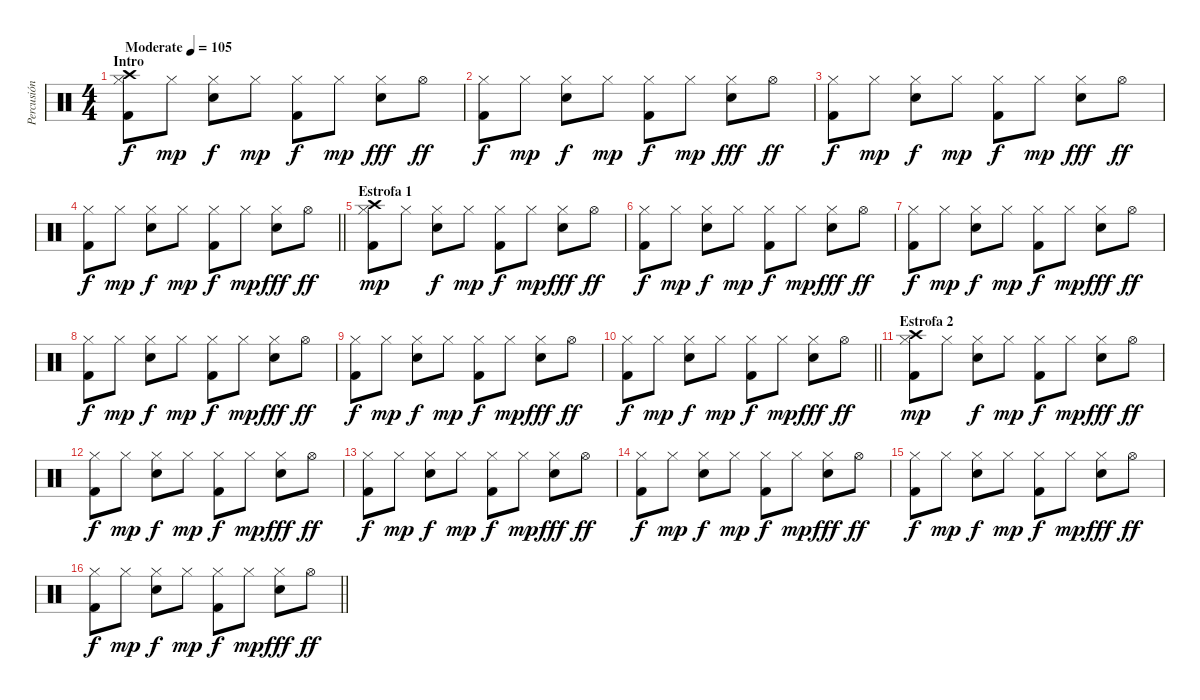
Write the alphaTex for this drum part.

\track ("Percusión" "Percusión") {instrument percussion}
\staff {score}
\articulation defaults
\ts (4 4)
\section ("" "Intro")
\tempo (105 "Moderate")
\clef neutral
\ks c
("Crash high (hit)" "Kick (hit) 2" "Hi-Hat (closed)").8{dy f} "Hi-Hat (closed)".8{dy mp} ("Snare (hit) 2" "Hi-Hat (closed)").8{dy f} "Hi-Hat (closed)".8{dy mp} ("Kick (hit) 2" "Hi-Hat (closed)").8{dy f} "Hi-Hat (closed)".8{dy mp} ("Snare (hit) 2" "Hi-Hat (closed)").8{dy fff} "Hi-Hat (open)".8{dy ff} |
("Kick (hit) 2" "Hi-Hat (closed)").8{dy f} "Hi-Hat (closed)".8{dy mp} ("Snare (hit) 2" "Hi-Hat (closed)").8{dy f} "Hi-Hat (closed)".8{dy mp} ("Kick (hit) 2" "Hi-Hat (closed)").8{dy f} "Hi-Hat (closed)".8{dy mp} ("Snare (hit) 2" "Hi-Hat (closed)").8{dy fff} "Hi-Hat (open)".8{dy ff} |
("Kick (hit) 2" "Hi-Hat (closed)").8{dy f} "Hi-Hat (closed)".8{dy mp} ("Snare (hit) 2" "Hi-Hat (closed)").8{dy f} "Hi-Hat (closed)".8{dy mp} ("Kick (hit) 2" "Hi-Hat (closed)").8{dy f} "Hi-Hat (closed)".8{dy mp} ("Snare (hit) 2" "Hi-Hat (closed)").8{dy fff} "Hi-Hat (open)".8{dy ff} |
\barLineRight lightlight
("Kick (hit) 2" "Hi-Hat (closed)").8{dy f} "Hi-Hat (closed)".8{dy mp} ("Snare (hit) 2" "Hi-Hat (closed)").8{dy f} "Hi-Hat (closed)".8{dy mp} ("Kick (hit) 2" "Hi-Hat (closed)").8{dy f} "Hi-Hat (closed)".8{dy mp} ("Snare (hit) 2" "Hi-Hat (closed)").8{dy fff} "Hi-Hat (open)".8{dy ff} |
\section ("" "Estrofa 1")
("Crash high (hit)" "Kick (hit) 2" "Hi-Hat (closed)").8{dy mp} "Hi-Hat (closed)".8 ("Snare (hit) 2" "Hi-Hat (closed)").8{dy f} "Hi-Hat (closed)".8{dy mp} ("Kick (hit) 2" "Hi-Hat (closed)").8{dy f} "Hi-Hat (closed)".8{dy mp} ("Snare (hit) 2" "Hi-Hat (closed)").8{dy fff} "Hi-Hat (open)".8{dy ff} |
("Kick (hit) 2" "Hi-Hat (closed)").8{dy f} "Hi-Hat (closed)".8{dy mp} ("Snare (hit) 2" "Hi-Hat (closed)").8{dy f} "Hi-Hat (closed)".8{dy mp} ("Kick (hit) 2" "Hi-Hat (closed)").8{dy f} "Hi-Hat (closed)".8{dy mp} ("Snare (hit) 2" "Hi-Hat (closed)").8{dy fff} "Hi-Hat (open)".8{dy ff} |
("Kick (hit) 2" "Hi-Hat (closed)").8{dy f} "Hi-Hat (closed)".8{dy mp} ("Snare (hit) 2" "Hi-Hat (closed)").8{dy f} "Hi-Hat (closed)".8{dy mp} ("Kick (hit) 2" "Hi-Hat (closed)").8{dy f} "Hi-Hat (closed)".8{dy mp} ("Snare (hit) 2" "Hi-Hat (closed)").8{dy fff} "Hi-Hat (open)".8{dy ff} |
("Kick (hit) 2" "Hi-Hat (closed)").8{dy f} "Hi-Hat (closed)".8{dy mp} ("Snare (hit) 2" "Hi-Hat (closed)").8{dy f} "Hi-Hat (closed)".8{dy mp} ("Kick (hit) 2" "Hi-Hat (closed)").8{dy f} "Hi-Hat (closed)".8{dy mp} ("Snare (hit) 2" "Hi-Hat (closed)").8{dy fff} "Hi-Hat (open)".8{dy ff} |
("Kick (hit) 2" "Hi-Hat (closed)").8{dy f} "Hi-Hat (closed)".8{dy mp} ("Snare (hit) 2" "Hi-Hat (closed)").8{dy f} "Hi-Hat (closed)".8{dy mp} ("Kick (hit) 2" "Hi-Hat (closed)").8{dy f} "Hi-Hat (closed)".8{dy mp} ("Snare (hit) 2" "Hi-Hat (closed)").8{dy fff} "Hi-Hat (open)".8{dy ff} |
\barLineRight lightlight
("Kick (hit) 2" "Hi-Hat (closed)").8{dy f} "Hi-Hat (closed)".8{dy mp} ("Snare (hit) 2" "Hi-Hat (closed)").8{dy f} "Hi-Hat (closed)".8{dy mp} ("Kick (hit) 2" "Hi-Hat (closed)").8{dy f} "Hi-Hat (closed)".8{dy mp} ("Snare (hit) 2" "Hi-Hat (closed)").8{dy fff} "Hi-Hat (open)".8{dy ff} |
\section ("" "Estrofa 2")
("Crash high (hit)" "Kick (hit) 2" "Hi-Hat (closed)").8{dy mp} "Hi-Hat (closed)".8 ("Snare (hit) 2" "Hi-Hat (closed)").8{dy f} "Hi-Hat (closed)".8{dy mp} ("Kick (hit) 2" "Hi-Hat (closed)").8{dy f} "Hi-Hat (closed)".8{dy mp} ("Snare (hit) 2" "Hi-Hat (closed)").8{dy fff} "Hi-Hat (open)".8{dy ff} |
("Kick (hit) 2" "Hi-Hat (closed)").8{dy f} "Hi-Hat (closed)".8{dy mp} ("Snare (hit) 2" "Hi-Hat (closed)").8{dy f} "Hi-Hat (closed)".8{dy mp} ("Kick (hit) 2" "Hi-Hat (closed)").8{dy f} "Hi-Hat (closed)".8{dy mp} ("Snare (hit) 2" "Hi-Hat (closed)").8{dy fff} "Hi-Hat (open)".8{dy ff} |
("Kick (hit) 2" "Hi-Hat (closed)").8{dy f} "Hi-Hat (closed)".8{dy mp} ("Snare (hit) 2" "Hi-Hat (closed)").8{dy f} "Hi-Hat (closed)".8{dy mp} ("Kick (hit) 2" "Hi-Hat (closed)").8{dy f} "Hi-Hat (closed)".8{dy mp} ("Snare (hit) 2" "Hi-Hat (closed)").8{dy fff} "Hi-Hat (open)".8{dy ff} |
("Kick (hit) 2" "Hi-Hat (closed)").8{dy f} "Hi-Hat (closed)".8{dy mp} ("Snare (hit) 2" "Hi-Hat (closed)").8{dy f} "Hi-Hat (closed)".8{dy mp} ("Kick (hit) 2" "Hi-Hat (closed)").8{dy f} "Hi-Hat (closed)".8{dy mp} ("Snare (hit) 2" "Hi-Hat (closed)").8{dy fff} "Hi-Hat (open)".8{dy ff} |
("Kick (hit) 2" "Hi-Hat (closed)").8{dy f} "Hi-Hat (closed)".8{dy mp} ("Snare (hit) 2" "Hi-Hat (closed)").8{dy f} "Hi-Hat (closed)".8{dy mp} ("Kick (hit) 2" "Hi-Hat (closed)").8{dy f} "Hi-Hat (closed)".8{dy mp} ("Snare (hit) 2" "Hi-Hat (closed)").8{dy fff} "Hi-Hat (open)".8{dy ff} |
\barLineRight lightlight
("Kick (hit) 2" "Hi-Hat (closed)").8{dy f} "Hi-Hat (closed)".8{dy mp} ("Snare (hit) 2" "Hi-Hat (closed)").8{dy f} "Hi-Hat (closed)".8{dy mp} ("Kick (hit) 2" "Hi-Hat (closed)").8{dy f} "Hi-Hat (closed)".8{dy mp} ("Snare (hit) 2" "Hi-Hat (closed)").8{dy fff} "Hi-Hat (open)".8{dy ff}
